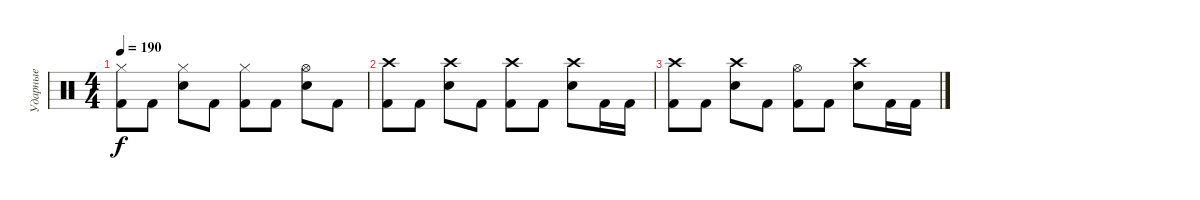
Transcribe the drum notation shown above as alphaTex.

\track ("Ударные" "Ударные") {instrument percussion}
\staff {score}
\articulation defaults
\ts (4 4)
\tempo 190
\clef neutral
\ks c
("Hi-Hat (closed)" "Kick (hit) 2").8{dy f} "Kick (hit) 2".8 ("Hi-Hat (closed)" "Snare (hit) 2").8 "Kick (hit) 2".8 ("Hi-Hat (closed)" "Kick (hit) 2").8 "Kick (hit) 2".8 ("Hi-Hat (open)" "Snare (hit) 2").8 "Kick (hit) 2".8 |
("Crash high (hit)" "Kick (hit) 2").8 "Kick (hit) 2".8 ("Crash high (hit)" "Snare (hit) 2").8 "Kick (hit) 2".8 ("Crash high (hit)" "Kick (hit) 2").8 "Kick (hit) 2".8 ("Crash high (hit)" "Snare (hit) 2").8 "Kick (hit) 2".16 "Kick (hit) 2".16 |
("Crash high (hit)" "Kick (hit) 2").8 "Kick (hit) 2".8 ("Crash high (hit)" "Snare (hit) 2").8 "Kick (hit) 2".8 ("Hi-Hat (open)" "Kick (hit) 2").8 "Kick (hit) 2".8 ("Crash high (hit)" "Snare (hit) 2").8 "Kick (hit) 2".16 "Kick (hit) 2".16
